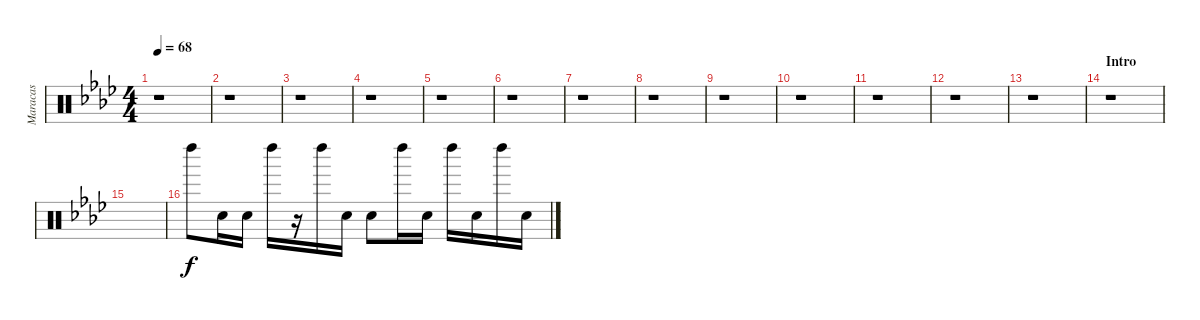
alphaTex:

\track ("Maracas" "Maracas") {instrument percussion}
\staff {score}
\articulation defaults
\ts (4 4)
\tempo 68
\clef neutral
\ks ab
r.1{dy f} |
r.1 |
r.1 |
r.1 |
r.1 |
r.1 |
r.1 |
r.1 |
r.1 |
r.1 |
r.1 |
r.1 |
r.1 |
\section ("" "Intro")
r.1 |
|
"Left Maraca (hit)".8 "Snare (hit)".16 "Snare (hit)".16 "Left Maraca (hit)".16 r.16 "Left Maraca (hit)".16 "Snare (hit)".16 "Snare (hit)".8 "Left Maraca (hit)".16 "Snare (hit)".16 "Left Maraca (hit)".16 "Snare (hit)".16 "Left Maraca (hit)".16 "Snare (hit)".16
